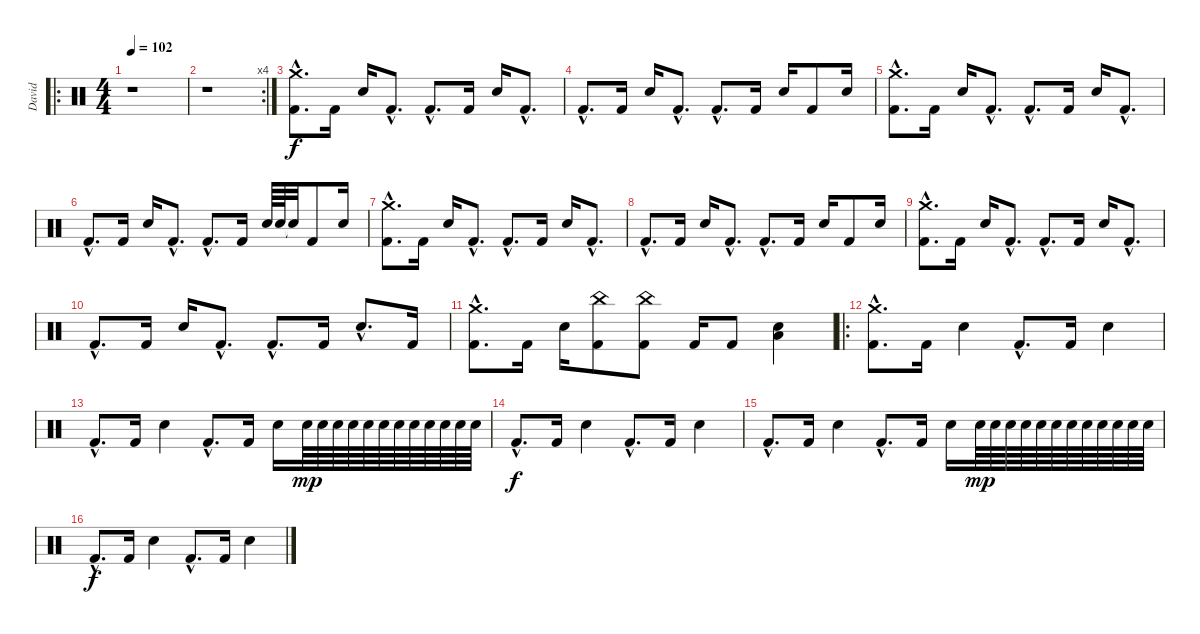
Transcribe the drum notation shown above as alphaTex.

\track ("David" "David") {instrument percussion}
\staff {score}
\articulation defaults
\ro
\ts (4 4)
\tempo 102
\clef neutral
\ks c
r.1{dy f} |
\rc 4
r.1 |
("Crash medium (hit)"{hac} "Kick (hit) 2"{hac}).8{d} "Kick (hit) 2".16 "Snare (hit) 2".16 "Kick (hit) 2"{hac}.8{d} "Kick (hit) 2"{hac}.8{d} "Kick (hit) 2".16 "Snare (hit) 2".16 "Kick (hit) 2"{hac}.8{d} |
"Kick (hit) 2"{hac}.8{d} "Kick (hit) 2".16 "Snare (hit) 2".16 "Kick (hit) 2"{hac}.8{d} "Kick (hit) 2"{hac}.8{d} "Kick (hit) 2".16 "Snare (hit) 2".16 "Kick (hit) 2".8 "Snare (hit) 2".16 |
("Crash medium (hit)"{hac} "Kick (hit) 2"{hac}).8{d} "Kick (hit) 2".16 "Snare (hit) 2".16 "Kick (hit) 2"{hac}.8{d} "Kick (hit) 2"{hac}.8{d} "Kick (hit) 2".16 "Snare (hit) 2".16 "Kick (hit) 2"{hac}.8{d} |
"Kick (hit) 2"{hac}.8{d} "Kick (hit) 2".16 "Snare (hit) 2".16 "Kick (hit) 2"{hac}.8{d} "Kick (hit) 2"{hac}.8{d} "Kick (hit) 2".16 "Snare (hit) 2".64 "Snare (hit) 2".64 "Snare (hit)"{t}.32 "Kick (hit) 2".8 "Snare (hit) 2".16 |
("Crash medium (hit)"{hac} "Kick (hit) 2"{hac}).8{d} "Kick (hit) 2".16 "Snare (hit) 2".16 "Kick (hit) 2"{hac}.8{d} "Kick (hit) 2"{hac}.8{d} "Kick (hit) 2".16 "Snare (hit) 2".16 "Kick (hit) 2"{hac}.8{d} |
"Kick (hit) 2"{hac}.8{d} "Kick (hit) 2".16 "Snare (hit) 2".16 "Kick (hit) 2"{hac}.8{d} "Kick (hit) 2"{hac}.8{d} "Kick (hit) 2".16 "Snare (hit) 2".16 "Kick (hit) 2".8 "Snare (hit) 2".16 |
("Crash medium (hit)"{hac} "Kick (hit) 2"{hac}).8{d} "Kick (hit) 2".16 "Snare (hit) 2".16 "Kick (hit) 2"{hac}.8{d} "Kick (hit) 2"{hac}.8{d} "Kick (hit) 2".16 "Snare (hit) 2".16 "Kick (hit) 2"{hac}.8{d} |
"Kick (hit) 2"{hac}.8{d} "Kick (hit) 2".16 "Snare (hit) 2".16 "Kick (hit) 2"{hac}.8{d} "Kick (hit) 2"{hac}.8{d} "Kick (hit) 2".16 "Snare (hit) 2"{hac}.8{d} "Kick (hit) 2".16 |
("Crash medium (hit)"{hac} "Kick (hit) 2"{hac}).8{d} "Kick (hit) 2".16 "Snare (hit) 2".16 ("China (hit)" "Kick (hit) 2").8 ("China (hit)" "Kick (hit) 2").8 "Kick (hit) 2".16 "Kick (hit) 2".8 ("Low Floor Tom (hit)" "Snare (hit) 2").4 |
\ro
("Crash medium (hit)"{hac} "Kick (hit) 2"{hac}).8{d} "Kick (hit) 2".16 "Snare (hit) 2".4 "Kick (hit) 2"{hac}.8{d} "Kick (hit) 2".16 "Snare (hit) 2".4 |
"Kick (hit) 2"{hac}.8{d} "Kick (hit) 2".16 "Snare (hit) 2".4 "Kick (hit) 2"{hac}.8{d} "Kick (hit) 2".16 "Snare (hit) 2".16 "Snare (hit) 2".64{dy mp} "Snare (hit) 2".64 "Snare (hit) 2".64 "Snare (hit) 2".64 "Snare (hit) 2".64 "Snare (hit) 2".64 "Snare (hit) 2".64 "Snare (hit) 2".64 "Snare (hit) 2".64 "Snare (hit) 2".64 "Snare (hit) 2".64 "Snare (hit) 2".64 |
"Kick (hit) 2"{hac}.8{d dy f} "Kick (hit) 2".16 "Snare (hit) 2".4 "Kick (hit) 2"{hac}.8{d} "Kick (hit) 2".16 "Snare (hit) 2".4 |
"Kick (hit) 2"{hac}.8{d} "Kick (hit) 2".16 "Snare (hit) 2".4 "Kick (hit) 2"{hac}.8{d} "Kick (hit) 2".16 "Snare (hit) 2".16 "Snare (hit) 2".64{dy mp} "Snare (hit) 2".64 "Snare (hit) 2".64 "Snare (hit) 2".64 "Snare (hit) 2".64 "Snare (hit) 2".64 "Snare (hit) 2".64 "Snare (hit) 2".64 "Snare (hit) 2".64 "Snare (hit) 2".64 "Snare (hit) 2".64 "Snare (hit) 2".64 |
"Kick (hit) 2"{hac}.8{d dy f} "Kick (hit) 2".16 "Snare (hit) 2".4 "Kick (hit) 2"{hac}.8{d} "Kick (hit) 2".16 "Snare (hit) 2".4
